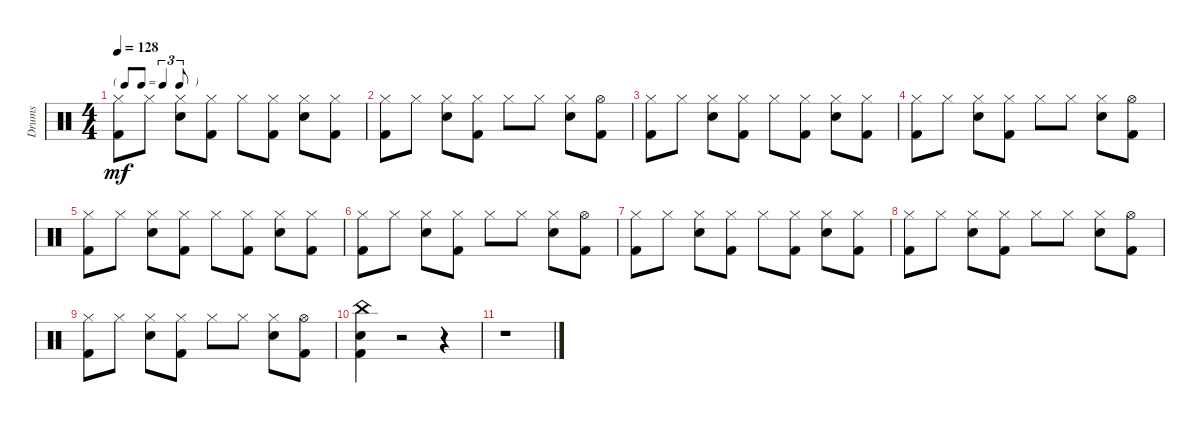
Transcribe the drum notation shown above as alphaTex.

\track ("Drums" "Drums") {instrument percussion}
\staff {score}
\articulation defaults
\ts (4 4)
\tf triplet8th
\tempo 128
\clef neutral
\ks c
("Hi-Hat (closed)" "Kick (hit) 2").8{dy mf} "Hi-Hat (closed)".8 ("Hi-Hat (closed)" "Electric Snare (hit)").8 ("Hi-Hat (closed)" "Kick (hit) 2").8 "Hi-Hat (closed)".8 ("Hi-Hat (closed)" "Kick (hit) 2").8 ("Hi-Hat (closed)" "Electric Snare (hit)").8 ("Hi-Hat (closed)" "Kick (hit) 2").8 |
("Hi-Hat (closed)" "Kick (hit) 2").8 "Hi-Hat (closed)".8 ("Hi-Hat (closed)" "Electric Snare (hit)").8 ("Hi-Hat (closed)" "Kick (hit) 2").8 "Hi-Hat (closed)".8 "Hi-Hat (closed)".8 ("Hi-Hat (closed)" "Electric Snare (hit)").8 ("Hi-Hat (open)" "Kick (hit) 2").8 |
("Hi-Hat (closed)" "Kick (hit) 2").8 "Hi-Hat (closed)".8 ("Hi-Hat (closed)" "Electric Snare (hit)").8 ("Hi-Hat (closed)" "Kick (hit) 2").8 "Hi-Hat (closed)".8 ("Hi-Hat (closed)" "Kick (hit) 2").8 ("Hi-Hat (closed)" "Electric Snare (hit)").8 ("Hi-Hat (closed)" "Kick (hit) 2").8 |
("Hi-Hat (closed)" "Kick (hit) 2").8 "Hi-Hat (closed)".8 ("Hi-Hat (closed)" "Electric Snare (hit)").8 ("Hi-Hat (closed)" "Kick (hit) 2").8 "Hi-Hat (closed)".8 "Hi-Hat (closed)".8 ("Hi-Hat (closed)" "Electric Snare (hit)").8 ("Hi-Hat (open)" "Kick (hit) 2").8 |
("Hi-Hat (closed)" "Kick (hit) 2").8 "Hi-Hat (closed)".8 ("Hi-Hat (closed)" "Electric Snare (hit)").8 ("Hi-Hat (closed)" "Kick (hit) 2").8 "Hi-Hat (closed)".8 ("Hi-Hat (closed)" "Kick (hit) 2").8 ("Hi-Hat (closed)" "Electric Snare (hit)").8 ("Hi-Hat (closed)" "Kick (hit) 2").8 |
("Hi-Hat (closed)" "Kick (hit) 2").8 "Hi-Hat (closed)".8 ("Hi-Hat (closed)" "Electric Snare (hit)").8 ("Hi-Hat (closed)" "Kick (hit) 2").8 "Hi-Hat (closed)".8 "Hi-Hat (closed)".8 ("Hi-Hat (closed)" "Electric Snare (hit)").8 ("Hi-Hat (open)" "Kick (hit) 2").8 |
("Hi-Hat (closed)" "Kick (hit) 2").8 "Hi-Hat (closed)".8 ("Hi-Hat (closed)" "Electric Snare (hit)").8 ("Hi-Hat (closed)" "Kick (hit) 2").8 "Hi-Hat (closed)".8 ("Hi-Hat (closed)" "Kick (hit) 2").8 ("Hi-Hat (closed)" "Electric Snare (hit)").8 ("Hi-Hat (closed)" "Kick (hit) 2").8 |
("Hi-Hat (closed)" "Kick (hit) 2").8 "Hi-Hat (closed)".8 ("Hi-Hat (closed)" "Electric Snare (hit)").8 ("Hi-Hat (closed)" "Kick (hit) 2").8 "Hi-Hat (closed)".8 "Hi-Hat (closed)".8 ("Hi-Hat (closed)" "Electric Snare (hit)").8 ("Hi-Hat (open)" "Kick (hit) 2").8 |
("Hi-Hat (closed)" "Kick (hit) 2").8 "Hi-Hat (closed)".8 ("Hi-Hat (closed)" "Electric Snare (hit)").8 ("Hi-Hat (closed)" "Kick (hit) 2").8 "Hi-Hat (closed)".8 "Hi-Hat (closed)".8 ("Hi-Hat (closed)" "Electric Snare (hit)").8 ("Hi-Hat (open)" "Kick (hit) 2").8 |
("China (hit)" "Electric Snare (hit)" "Kick (hit) 2").4 r.2 r.4 |
r.1
